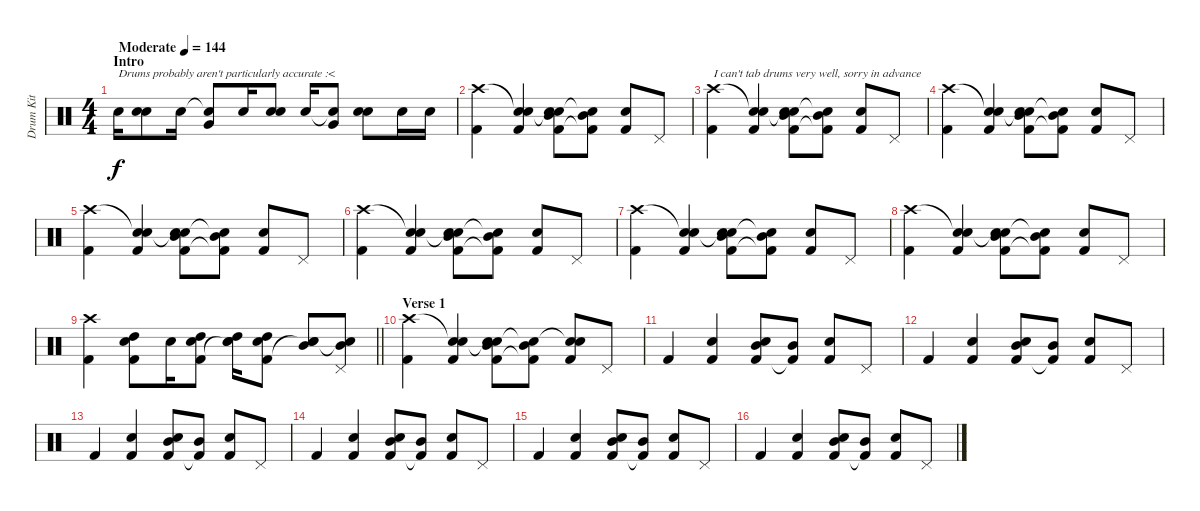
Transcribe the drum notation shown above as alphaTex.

\track ("Drum Kit" "Drum Kit") {instrument percussion}
\staff {score}
\articulation defaults
\ts (4 4)
\section ("" "Intro")
\tempo (144 "Moderate")
\clef neutral
\ks c "Snare (hit) 2".16{txt "Drums probably aren't particularly accurate :<" dy f}
("Snare (hit) 2" "Snare (hit) 2").8 "Snare (hit) 2".16 ("Snare (hit) 2"{t} "Very Low Tom (hit)").8 "Snare (hit) 2".16 ("Snare (hit) 2" "Snare (hit) 2").8 "Snare (hit) 2".16 ("Snare (hit) 2"{t} "Very Low Tom (hit)").8 ("Snare (hit) 2" "Snare (hit) 2").8 "Snare (hit) 2".16 "Snare (hit) 2".16 |
("Kick (hit) 2" "Crash high (hit)").4 ("Kick (hit) 2" "Snare (hit)"{t} "Snare (hit) 2").4 ("Kick (hit) 2" "Snare (hit)"{t} "Electric Snare (hit)" "Mid Tom (hit)").8 ("Kick (hit) 2"{t} "Snare (hit)"{t} "Mid Tom (hit)").8 ("Kick (hit) 2" "Snare (hit) 2").8 "Pedal Hi-Hat (hit)".8 |
("Kick (hit) 2" "Crash high (hit)").4{txt "I can't tab drums very well, sorry in advance"} ("Kick (hit) 2" "Snare (hit)"{t} "Snare (hit) 2").4 ("Kick (hit) 2" "Snare (hit)"{t} "Electric Snare (hit)" "Mid Tom (hit)").8 ("Kick (hit) 2"{t} "Snare (hit)"{t} "Mid Tom (hit)").8 ("Kick (hit) 2" "Snare (hit) 2").8 "Pedal Hi-Hat (hit)".8 |
("Kick (hit) 2" "Crash high (hit)").4 ("Kick (hit) 2" "Snare (hit)"{t} "Snare (hit) 2").4 ("Kick (hit) 2" "Snare (hit)"{t} "Electric Snare (hit)" "Mid Tom (hit)").8 ("Kick (hit) 2"{t} "Snare (hit)"{t} "Mid Tom (hit)").8 ("Kick (hit) 2" "Snare (hit) 2").8 "Pedal Hi-Hat (hit)".8 |
("Kick (hit) 2" "Crash high (hit)").4 ("Kick (hit) 2" "Snare (hit)"{t} "Snare (hit) 2").4 ("Kick (hit) 2" "Snare (hit)"{t} "Electric Snare (hit)" "Mid Tom (hit)").8 ("Kick (hit) 2"{t} "Snare (hit)"{t} "Mid Tom (hit)").8 ("Kick (hit) 2" "Snare (hit) 2").8 "Pedal Hi-Hat (hit)".8 |
("Kick (hit) 2" "Crash high (hit)").4 ("Kick (hit) 2" "Snare (hit)"{t} "Snare (hit) 2").4 ("Kick (hit) 2" "Snare (hit)"{t} "Electric Snare (hit)" "Mid Tom (hit)").8 ("Kick (hit) 2"{t} "Snare (hit)"{t} "Mid Tom (hit)").8 ("Kick (hit) 2" "Snare (hit) 2").8 "Pedal Hi-Hat (hit)".8 |
("Kick (hit) 2" "Crash high (hit)").4 ("Kick (hit) 2" "Snare (hit)"{t} "Snare (hit) 2").4 ("Kick (hit) 2" "Snare (hit)"{t} "Electric Snare (hit)" "Mid Tom (hit)").8 ("Kick (hit) 2"{t} "Snare (hit)"{t} "Mid Tom (hit)").8 ("Kick (hit) 2" "Snare (hit) 2").8 "Pedal Hi-Hat (hit)".8 |
("Kick (hit) 2" "Crash high (hit)").4 ("Kick (hit) 2" "Snare (hit)"{t} "Snare (hit) 2").4 ("Kick (hit) 2" "Snare (hit)"{t} "Electric Snare (hit)" "Mid Tom (hit)").8 ("Kick (hit) 2"{t} "Snare (hit)"{t} "Mid Tom (hit)").8 ("Kick (hit) 2" "Snare (hit) 2").8 "Pedal Hi-Hat (hit)".8 |
\barLineRight lightlight
("Kick (hit) 2" "Crash high (hit)").4 ("Kick (hit) 2" "High Tom (hit)" "Snare (hit) 2").8 "Snare (hit) 2".16 ("Kick (hit) 2" "High Tom (hit)" "Snare (hit) 2").8 ("Snare (hit)"{t} "High Tom (hit)" "Snare (hit) 2").16 ("Kick (hit) 2" "High Tom (hit)" "Snare (hit) 2").8 ("Snare (hit)"{t} "Mid Tom (hit)" "Snare (hit) 2").8 ("Snare (hit)"{t} "Mid Tom (hit)" "Pedal Hi-Hat (hit)").8 |
\section ("" "Verse 1")
("Kick (hit) 2" "Crash high (hit)").4 ("Kick (hit) 2" "Snare (hit)"{t} "Snare (hit) 2").4 ("Kick (hit) 2" "Snare (hit)"{t} "Electric Snare (hit)" "Mid Tom (hit)").8 ("Kick (hit) 2"{t} "Snare (hit)"{t} "Mid Tom (hit)").8 ("Kick (hit) 2" "Snare (hit)"{t} "Snare (hit) 2").8 "Pedal Hi-Hat (hit)".8 |
"Kick (hit) 2".4 ("Kick (hit) 2" "Snare (hit) 2").4 ("Kick (hit) 2" "Electric Snare (hit)" "Mid Tom (hit)").8 ("Kick (hit) 2"{t} "Mid Tom (hit)").8 ("Kick (hit) 2" "Snare (hit) 2").8 "Pedal Hi-Hat (hit)".8 |
"Kick (hit) 2".4 ("Kick (hit) 2" "Snare (hit) 2").4 ("Kick (hit) 2" "Electric Snare (hit)" "Mid Tom (hit)").8 ("Kick (hit) 2"{t} "Mid Tom (hit)").8 ("Kick (hit) 2" "Snare (hit) 2").8 "Pedal Hi-Hat (hit)".8 |
"Kick (hit) 2".4 ("Kick (hit) 2" "Snare (hit) 2").4 ("Kick (hit) 2" "Electric Snare (hit)" "Mid Tom (hit)").8 ("Kick (hit) 2"{t} "Mid Tom (hit)").8 ("Kick (hit) 2" "Snare (hit) 2").8 "Pedal Hi-Hat (hit)".8 |
"Kick (hit) 2".4 ("Kick (hit) 2" "Snare (hit) 2").4 ("Kick (hit) 2" "Electric Snare (hit)" "Mid Tom (hit)").8 ("Kick (hit) 2"{t} "Mid Tom (hit)").8 ("Kick (hit) 2" "Snare (hit) 2").8 "Pedal Hi-Hat (hit)".8 |
"Kick (hit) 2".4 ("Kick (hit) 2" "Snare (hit) 2").4 ("Kick (hit) 2" "Electric Snare (hit)" "Mid Tom (hit)").8 ("Kick (hit) 2"{t} "Mid Tom (hit)").8 ("Kick (hit) 2" "Snare (hit) 2").8 "Pedal Hi-Hat (hit)".8 |
"Kick (hit) 2".4 ("Kick (hit) 2" "Snare (hit) 2").4 ("Kick (hit) 2" "Electric Snare (hit)" "Mid Tom (hit)").8 ("Kick (hit) 2"{t} "Mid Tom (hit)").8 ("Kick (hit) 2" "Snare (hit) 2").8 "Pedal Hi-Hat (hit)".8
